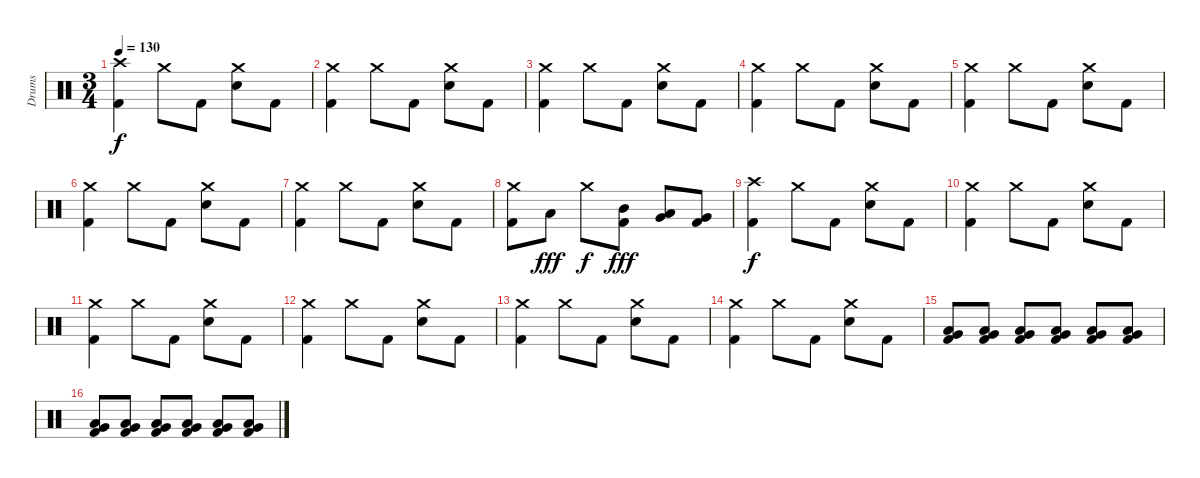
\track ("Drums" "Drums") {instrument percussion}
\staff {score}
\articulation defaults
\ts (3 4)
\tempo 130
\clef neutral
\ks c
("Kick (hit) 2" "Crash high (hit)").4{dy f} "Crash medium (hit)".8 "Kick (hit) 2".8 ("Electric Snare (hit)" "Crash medium (hit)").8 "Kick (hit) 2".8 |
("Kick (hit) 2" "Crash medium (hit)").4 "Crash medium (hit)".8 "Kick (hit) 2".8 ("Electric Snare (hit)" "Crash medium (hit)").8 "Kick (hit) 2".8 |
("Kick (hit) 2" "Crash medium (hit)").4 "Crash medium (hit)".8 "Kick (hit) 2".8 ("Electric Snare (hit)" "Crash medium (hit)").8 "Kick (hit) 2".8 |
("Kick (hit) 2" "Crash medium (hit)").4 "Crash medium (hit)".8 "Kick (hit) 2".8 ("Electric Snare (hit)" "Crash medium (hit)").8 "Kick (hit) 2".8 |
("Kick (hit) 2" "Crash medium (hit)").4 "Crash medium (hit)".8 "Kick (hit) 2".8 ("Electric Snare (hit)" "Crash medium (hit)").8 "Kick (hit) 2".8 |
("Kick (hit) 2" "Crash medium (hit)").4 "Crash medium (hit)".8 "Kick (hit) 2".8 ("Electric Snare (hit)" "Crash medium (hit)").8 "Kick (hit) 2".8 |
("Kick (hit) 2" "Crash medium (hit)").4 "Crash medium (hit)".8 "Kick (hit) 2".8 ("Electric Snare (hit)" "Crash medium (hit)").8 "Kick (hit) 2".8 |
("Kick (hit) 2" "Crash medium (hit)").8 "Low Tom (hit)".8{dy fff} "Crash medium (hit)".8{dy f} ("Kick (hit) 2" "Mid Tom (hit)").8{dy fff} ("Low Tom (hit)" "Very Low Tom (hit)").8 ("Kick (hit) 2" "Very Low Tom (hit)").8 |
("Kick (hit) 2" "Crash high (hit)").4{dy f} "Crash medium (hit)".8 "Kick (hit) 2".8 ("Electric Snare (hit)" "Crash medium (hit)").8 "Kick (hit) 2".8 |
("Kick (hit) 2" "Crash medium (hit)").4 "Crash medium (hit)".8 "Kick (hit) 2".8 ("Electric Snare (hit)" "Crash medium (hit)").8 "Kick (hit) 2".8 |
("Kick (hit) 2" "Crash medium (hit)").4 "Crash medium (hit)".8 "Kick (hit) 2".8 ("Electric Snare (hit)" "Crash medium (hit)").8 "Kick (hit) 2".8 |
("Kick (hit) 2" "Crash medium (hit)").4 "Crash medium (hit)".8 "Kick (hit) 2".8 ("Electric Snare (hit)" "Crash medium (hit)").8 "Kick (hit) 2".8 |
("Kick (hit) 2" "Crash medium (hit)").4 "Crash medium (hit)".8 "Kick (hit) 2".8 ("Electric Snare (hit)" "Crash medium (hit)").8 "Kick (hit) 2".8 |
("Kick (hit) 2" "Crash medium (hit)").4 "Crash medium (hit)".8 "Kick (hit) 2".8 ("Electric Snare (hit)" "Crash medium (hit)").8 "Kick (hit) 2".8 |
("Kick (hit) 2" "Low Tom (hit)" "Very Low Tom (hit)").8 ("Kick (hit) 2" "Low Tom (hit)" "Very Low Tom (hit)").8 ("Kick (hit) 2" "Low Tom (hit)" "Very Low Tom (hit)").8 ("Kick (hit) 2" "Low Tom (hit)" "Very Low Tom (hit)").8 ("Kick (hit) 2" "Low Tom (hit)" "Very Low Tom (hit)").8 ("Kick (hit) 2" "Low Tom (hit)" "Very Low Tom (hit)").8 |
("Kick (hit) 2" "Low Tom (hit)" "Very Low Tom (hit)").8 ("Kick (hit) 2" "Low Tom (hit)" "Very Low Tom (hit)").8 ("Kick (hit) 2" "Low Tom (hit)" "Very Low Tom (hit)").8 ("Kick (hit) 2" "Low Tom (hit)" "Very Low Tom (hit)").8 ("Kick (hit) 2" "Low Tom (hit)" "Very Low Tom (hit)").8 ("Kick (hit) 2" "Low Tom (hit)" "Very Low Tom (hit)").8
